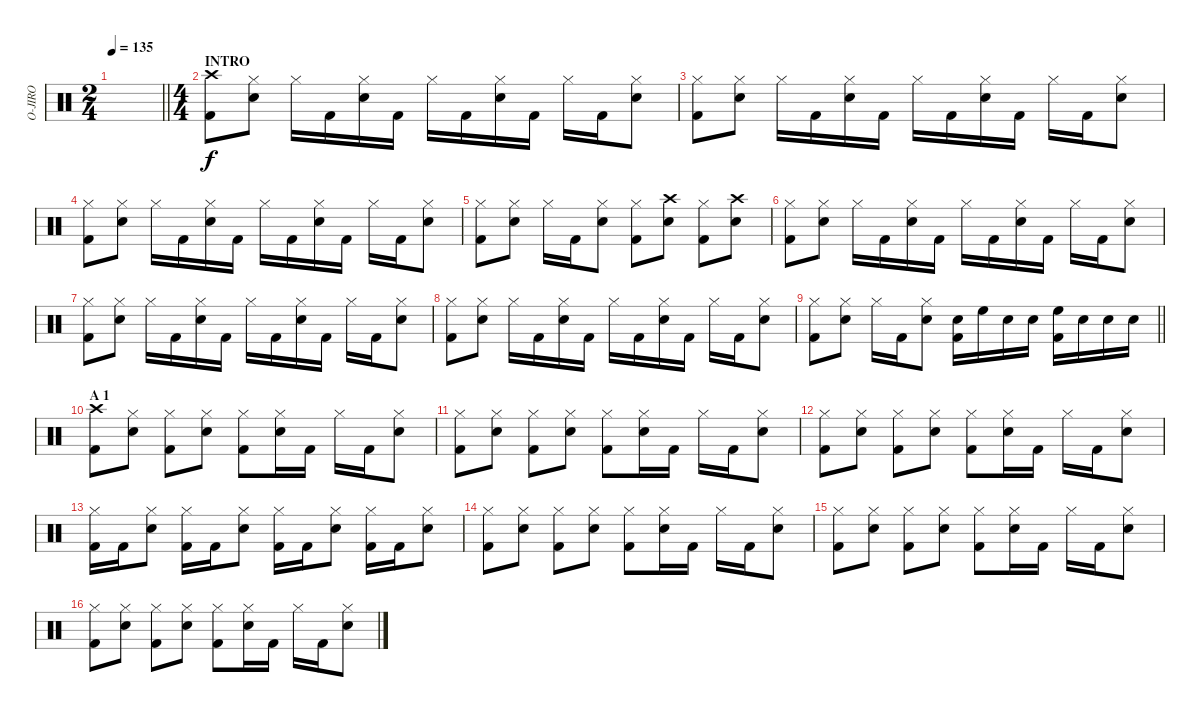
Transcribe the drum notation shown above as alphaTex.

\track ("O-JIRO" "O-JIRO") {instrument percussion}
\staff {score}
\articulation defaults
\ts (2 4)
\tempo 135
\clef neutral
\barLineRight lightlight
\ks c
|
\ts (4 4)
\section ("" "INTRO")
("Crash high (hit)" "Kick (hit) 2").8 ("Hi-Hat (closed)" "Snare (hit) 2").8 "Hi-Hat (closed)".16 "Kick (hit) 2".16 ("Hi-Hat (closed)" "Snare (hit) 2").16 "Kick (hit) 2".16 "Hi-Hat (closed)".16 "Kick (hit) 2".16 ("Hi-Hat (closed)" "Snare (hit) 2").16 "Kick (hit) 2".16 "Hi-Hat (closed)".16 "Kick (hit) 2".16 ("Hi-Hat (closed)" "Snare (hit) 2").8 |
("Hi-Hat (closed)" "Kick (hit) 2").8 ("Hi-Hat (closed)" "Snare (hit) 2").8 "Hi-Hat (closed)".16 "Kick (hit) 2".16 ("Hi-Hat (closed)" "Snare (hit) 2").16 "Kick (hit) 2".16 "Hi-Hat (closed)".16 "Kick (hit) 2".16 ("Hi-Hat (closed)" "Snare (hit) 2").16 "Kick (hit) 2".16 "Hi-Hat (closed)".16 "Kick (hit) 2".16 ("Hi-Hat (closed)" "Snare (hit) 2").8 |
("Hi-Hat (closed)" "Kick (hit) 2").8 ("Hi-Hat (closed)" "Snare (hit) 2").8 "Hi-Hat (closed)".16 "Kick (hit) 2".16 ("Hi-Hat (closed)" "Snare (hit) 2").16 "Kick (hit) 2".16 "Hi-Hat (closed)".16 "Kick (hit) 2".16 ("Hi-Hat (closed)" "Snare (hit) 2").16 "Kick (hit) 2".16 "Hi-Hat (closed)".16 "Kick (hit) 2".16 ("Hi-Hat (closed)" "Snare (hit) 2").8 |
("Hi-Hat (closed)" "Kick (hit) 2").8 ("Hi-Hat (closed)" "Snare (hit) 2").8 "Hi-Hat (closed)".16 "Kick (hit) 2".16 ("Hi-Hat (closed)" "Snare (hit) 2").8 ("Hi-Hat (closed)" "Kick (hit) 2").8 ("Crash high (hit)" "Snare (hit) 2").8 ("Hi-Hat (closed)" "Kick (hit) 2").8 ("Crash high (hit)" "Snare (hit) 2").8 |
("Hi-Hat (closed)" "Kick (hit) 2").8 ("Hi-Hat (closed)" "Snare (hit) 2").8 "Hi-Hat (closed)".16 "Kick (hit) 2".16 ("Hi-Hat (closed)" "Snare (hit) 2").16 "Kick (hit) 2".16 "Hi-Hat (closed)".16 "Kick (hit) 2".16 ("Hi-Hat (closed)" "Snare (hit) 2").16 "Kick (hit) 2".16 "Hi-Hat (closed)".16 "Kick (hit) 2".16 ("Hi-Hat (closed)" "Snare (hit) 2").8 |
("Hi-Hat (closed)" "Kick (hit) 2").8 ("Hi-Hat (closed)" "Snare (hit) 2").8 "Hi-Hat (closed)".16 "Kick (hit) 2".16 ("Hi-Hat (closed)" "Snare (hit) 2").16 "Kick (hit) 2".16 "Hi-Hat (closed)".16 "Kick (hit) 2".16 ("Hi-Hat (closed)" "Snare (hit) 2").16 "Kick (hit) 2".16 "Hi-Hat (closed)".16 "Kick (hit) 2".16 ("Hi-Hat (closed)" "Snare (hit) 2").8 |
("Hi-Hat (closed)" "Kick (hit) 2").8 ("Hi-Hat (closed)" "Snare (hit) 2").8 "Hi-Hat (closed)".16 "Kick (hit) 2".16 ("Hi-Hat (closed)" "Snare (hit) 2").16 "Kick (hit) 2".16 "Hi-Hat (closed)".16 "Kick (hit) 2".16 ("Hi-Hat (closed)" "Snare (hit) 2").16 "Kick (hit) 2".16 "Hi-Hat (closed)".16 "Kick (hit) 2".16 ("Hi-Hat (closed)" "Snare (hit) 2").8 |
\barLineRight lightlight
("Hi-Hat (closed)" "Kick (hit) 2").8 ("Hi-Hat (closed)" "Snare (hit) 2").8 "Hi-Hat (closed)".16 "Kick (hit) 2".16 ("Hi-Hat (closed)" "Snare (hit) 2").8 ("Snare (hit) 2" "Kick (hit) 2").16 "High Floor Tom (hit)".16 "Snare (hit) 2".16 "Snare (hit) 2".16 ("High Floor Tom (hit)" "Kick (hit) 2").16 "Snare (hit) 2".16 "Snare (hit) 2".16 "Snare (hit) 2".16 |
\section ("" "A 1")
("Crash high (hit)" "Kick (hit) 2").8 ("Hi-Hat (closed)" "Snare (hit) 2").8 ("Hi-Hat (closed)" "Kick (hit) 2").8 ("Hi-Hat (closed)" "Snare (hit) 2").8 ("Hi-Hat (closed)" "Kick (hit) 2").8 ("Hi-Hat (closed)" "Snare (hit) 2").16 "Kick (hit) 2".16 "Hi-Hat (closed)".16 "Kick (hit) 2".16 ("Hi-Hat (closed)" "Snare (hit) 2").8 |
("Hi-Hat (closed)" "Kick (hit) 2").8 ("Hi-Hat (closed)" "Snare (hit) 2").8 ("Hi-Hat (closed)" "Kick (hit) 2").8 ("Hi-Hat (closed)" "Snare (hit) 2").8 ("Hi-Hat (closed)" "Kick (hit) 2").8 ("Hi-Hat (closed)" "Snare (hit) 2").16 "Kick (hit) 2".16 "Hi-Hat (closed)".16 "Kick (hit) 2".16 ("Hi-Hat (closed)" "Snare (hit) 2").8 |
("Hi-Hat (closed)" "Kick (hit) 2").8 ("Hi-Hat (closed)" "Snare (hit) 2").8 ("Hi-Hat (closed)" "Kick (hit) 2").8 ("Hi-Hat (closed)" "Snare (hit) 2").8 ("Hi-Hat (closed)" "Kick (hit) 2").8 ("Hi-Hat (closed)" "Snare (hit) 2").16 "Kick (hit) 2".16 "Hi-Hat (closed)".16 "Kick (hit) 2".16 ("Hi-Hat (closed)" "Snare (hit) 2").8 |
("Hi-Hat (closed)" "Kick (hit) 2").16 "Kick (hit) 2".16 ("Hi-Hat (closed)" "Snare (hit) 2").8 ("Hi-Hat (closed)" "Kick (hit) 2").16 "Kick (hit) 2".16 ("Hi-Hat (closed)" "Snare (hit) 2").8 ("Hi-Hat (closed)" "Kick (hit) 2").16 "Kick (hit) 2".16 ("Hi-Hat (closed)" "Snare (hit) 2").8 ("Hi-Hat (closed)" "Kick (hit) 2").16 "Kick (hit) 2".16 ("Hi-Hat (closed)" "Snare (hit) 2").8 |
("Hi-Hat (closed)" "Kick (hit) 2").8 ("Hi-Hat (closed)" "Snare (hit) 2").8 ("Hi-Hat (closed)" "Kick (hit) 2").8 ("Hi-Hat (closed)" "Snare (hit) 2").8 ("Hi-Hat (closed)" "Kick (hit) 2").8 ("Hi-Hat (closed)" "Snare (hit) 2").16 "Kick (hit) 2".16 "Hi-Hat (closed)".16 "Kick (hit) 2".16 ("Hi-Hat (closed)" "Snare (hit) 2").8 |
("Hi-Hat (closed)" "Kick (hit) 2").8 ("Hi-Hat (closed)" "Snare (hit) 2").8 ("Hi-Hat (closed)" "Kick (hit) 2").8 ("Hi-Hat (closed)" "Snare (hit) 2").8 ("Hi-Hat (closed)" "Kick (hit) 2").8 ("Hi-Hat (closed)" "Snare (hit) 2").16 "Kick (hit) 2".16 "Hi-Hat (closed)".16 "Kick (hit) 2".16 ("Hi-Hat (closed)" "Snare (hit) 2").8 |
("Hi-Hat (closed)" "Kick (hit) 2").8 ("Hi-Hat (closed)" "Snare (hit) 2").8 ("Hi-Hat (closed)" "Kick (hit) 2").8 ("Hi-Hat (closed)" "Snare (hit) 2").8 ("Hi-Hat (closed)" "Kick (hit) 2").8 ("Hi-Hat (closed)" "Snare (hit) 2").16 "Kick (hit) 2".16 "Hi-Hat (closed)".16 "Kick (hit) 2".16 ("Hi-Hat (closed)" "Snare (hit) 2").8
